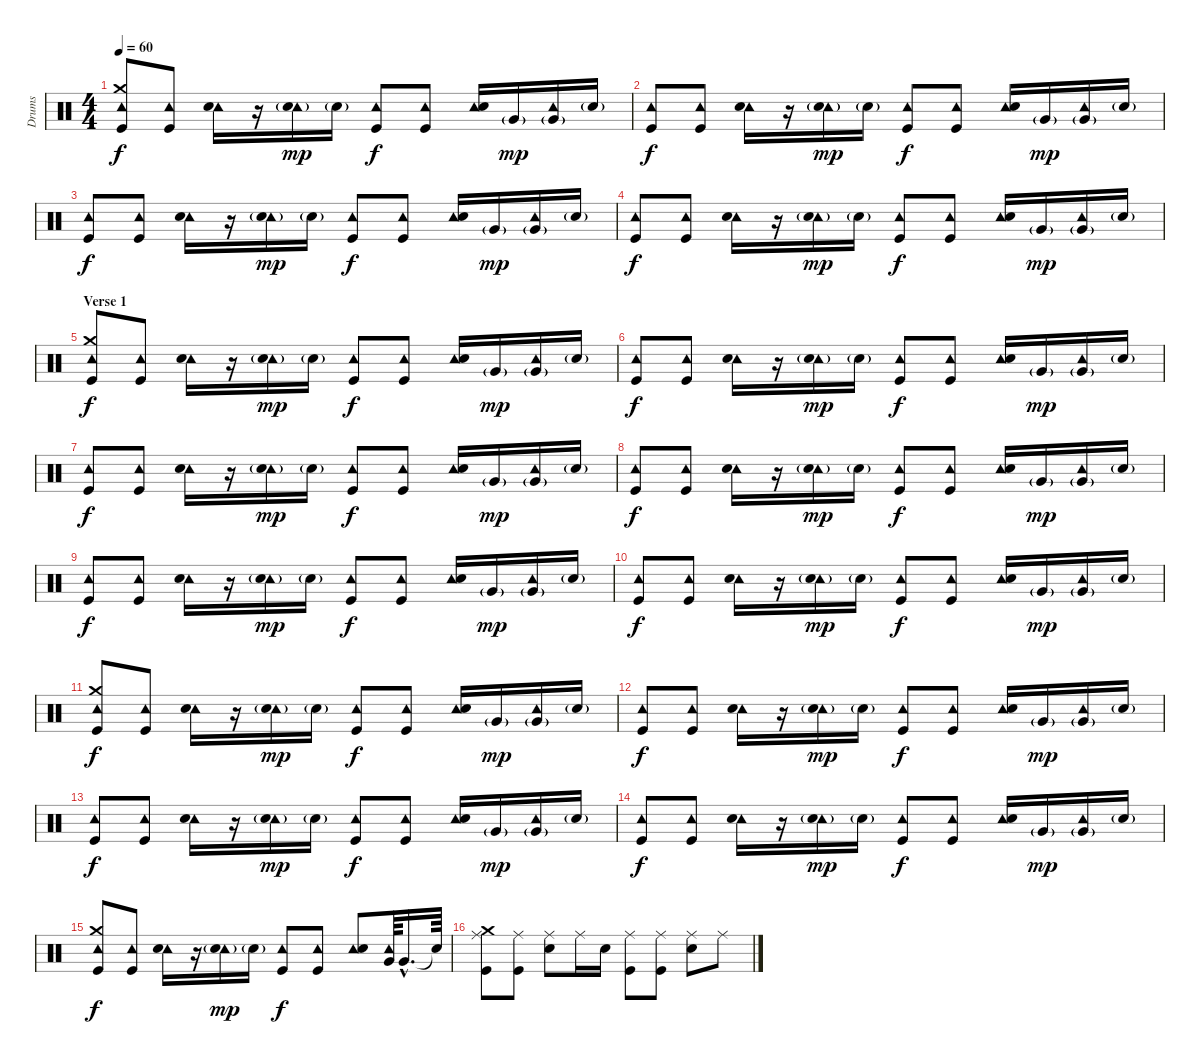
\track ("Drums" "Drums") {instrument percussion}
\staff {score}
\articulation defaults
\ts (4 4)
\tempo 60
\clef neutral
\ks c
("Tambourine (hit)" "Crash medium (hit)" "Kick (hit)").8{dy f} ("Tambourine (hit)" "Kick (hit)").8 ("Tambourine (hit)" "Snare (hit) 2").16 r.16 ("Tambourine (hit)" "Snare (hit) 2"{g}).16{dy mp} "Snare (hit) 2"{g}.16 ("Tambourine (hit)" "Kick (hit)").8{dy f} ("Tambourine (hit)" "Kick (hit)").8 ("Tambourine (hit)" "Snare (hit) 2").16 "Very Low Tom (hit)"{g}.16{dy mp} ("Tambourine (hit)" "Very Low Tom (hit)"{g}).16 "Snare (hit) 2"{g}.16 |
("Tambourine (hit)" "Kick (hit)").8{dy f} ("Tambourine (hit)" "Kick (hit)").8 ("Tambourine (hit)" "Snare (hit) 2").16 r.16 ("Tambourine (hit)" "Snare (hit) 2"{g}).16{dy mp} "Snare (hit) 2"{g}.16 ("Tambourine (hit)" "Kick (hit)").8{dy f} ("Tambourine (hit)" "Kick (hit)").8 ("Tambourine (hit)" "Snare (hit) 2").16 "Very Low Tom (hit)"{g}.16{dy mp} ("Tambourine (hit)" "Very Low Tom (hit)"{g}).16 "Snare (hit) 2"{g}.16 |
("Tambourine (hit)" "Kick (hit)").8{dy f} ("Tambourine (hit)" "Kick (hit)").8 ("Tambourine (hit)" "Snare (hit) 2").16 r.16 ("Tambourine (hit)" "Snare (hit) 2"{g}).16{dy mp} "Snare (hit) 2"{g}.16 ("Tambourine (hit)" "Kick (hit)").8{dy f} ("Tambourine (hit)" "Kick (hit)").8 ("Tambourine (hit)" "Snare (hit) 2").16 "Very Low Tom (hit)"{g}.16{dy mp} ("Tambourine (hit)" "Very Low Tom (hit)"{g}).16 "Snare (hit) 2"{g}.16 |
("Tambourine (hit)" "Kick (hit)").8{dy f} ("Tambourine (hit)" "Kick (hit)").8 ("Tambourine (hit)" "Snare (hit) 2").16 r.16 ("Tambourine (hit)" "Snare (hit) 2"{g}).16{dy mp} "Snare (hit) 2"{g}.16 ("Tambourine (hit)" "Kick (hit)").8{dy f} ("Tambourine (hit)" "Kick (hit)").8 ("Tambourine (hit)" "Snare (hit) 2").16 "Very Low Tom (hit)"{g}.16{dy mp} ("Tambourine (hit)" "Very Low Tom (hit)"{g}).16 "Snare (hit) 2"{g}.16 |
\section ("" "Verse 1")
("Tambourine (hit)" "Crash medium (hit)" "Kick (hit)").8{dy f} ("Tambourine (hit)" "Kick (hit)").8 ("Tambourine (hit)" "Snare (hit) 2").16 r.16 ("Tambourine (hit)" "Snare (hit) 2"{g}).16{dy mp} "Snare (hit) 2"{g}.16 ("Tambourine (hit)" "Kick (hit)").8{dy f} ("Tambourine (hit)" "Kick (hit)").8 ("Tambourine (hit)" "Snare (hit) 2").16 "Very Low Tom (hit)"{g}.16{dy mp} ("Tambourine (hit)" "Very Low Tom (hit)"{g}).16 "Snare (hit) 2"{g}.16 |
("Tambourine (hit)" "Kick (hit)").8{dy f} ("Tambourine (hit)" "Kick (hit)").8 ("Tambourine (hit)" "Snare (hit) 2").16 r.16 ("Tambourine (hit)" "Snare (hit) 2"{g}).16{dy mp} "Snare (hit) 2"{g}.16 ("Tambourine (hit)" "Kick (hit)").8{dy f} ("Tambourine (hit)" "Kick (hit)").8 ("Tambourine (hit)" "Snare (hit) 2").16 "Very Low Tom (hit)"{g}.16{dy mp} ("Tambourine (hit)" "Very Low Tom (hit)"{g}).16 "Snare (hit) 2"{g}.16 |
("Tambourine (hit)" "Kick (hit)").8{dy f} ("Tambourine (hit)" "Kick (hit)").8 ("Tambourine (hit)" "Snare (hit) 2").16 r.16 ("Tambourine (hit)" "Snare (hit) 2"{g}).16{dy mp} "Snare (hit) 2"{g}.16 ("Tambourine (hit)" "Kick (hit)").8{dy f} ("Tambourine (hit)" "Kick (hit)").8 ("Tambourine (hit)" "Snare (hit) 2").16 "Very Low Tom (hit)"{g}.16{dy mp} ("Tambourine (hit)" "Very Low Tom (hit)"{g}).16 "Snare (hit) 2"{g}.16 |
("Tambourine (hit)" "Kick (hit)").8{dy f} ("Tambourine (hit)" "Kick (hit)").8 ("Tambourine (hit)" "Snare (hit) 2").16 r.16 ("Tambourine (hit)" "Snare (hit) 2"{g}).16{dy mp} "Snare (hit) 2"{g}.16 ("Tambourine (hit)" "Kick (hit)").8{dy f} ("Tambourine (hit)" "Kick (hit)").8 ("Tambourine (hit)" "Snare (hit) 2").16 "Very Low Tom (hit)"{g}.16{dy mp} ("Tambourine (hit)" "Very Low Tom (hit)"{g}).16 "Snare (hit) 2"{g}.16 |
("Tambourine (hit)" "Kick (hit)").8{dy f} ("Tambourine (hit)" "Kick (hit)").8 ("Tambourine (hit)" "Snare (hit) 2").16 r.16 ("Tambourine (hit)" "Snare (hit) 2"{g}).16{dy mp} "Snare (hit) 2"{g}.16 ("Tambourine (hit)" "Kick (hit)").8{dy f} ("Tambourine (hit)" "Kick (hit)").8 ("Tambourine (hit)" "Snare (hit) 2").16 "Very Low Tom (hit)"{g}.16{dy mp} ("Tambourine (hit)" "Very Low Tom (hit)"{g}).16 "Snare (hit) 2"{g}.16 |
("Tambourine (hit)" "Kick (hit)").8{dy f} ("Tambourine (hit)" "Kick (hit)").8 ("Tambourine (hit)" "Snare (hit) 2").16 r.16 ("Tambourine (hit)" "Snare (hit) 2"{g}).16{dy mp} "Snare (hit) 2"{g}.16 ("Tambourine (hit)" "Kick (hit)").8{dy f} ("Tambourine (hit)" "Kick (hit)").8 ("Tambourine (hit)" "Snare (hit) 2").16 "Very Low Tom (hit)"{g}.16{dy mp} ("Tambourine (hit)" "Very Low Tom (hit)"{g}).16 "Snare (hit) 2"{g}.16 |
("Tambourine (hit)" "Crash medium (hit)" "Kick (hit)").8{dy f} ("Tambourine (hit)" "Kick (hit)").8 ("Tambourine (hit)" "Snare (hit) 2").16 r.16 ("Tambourine (hit)" "Snare (hit) 2"{g}).16{dy mp} "Snare (hit) 2"{g}.16 ("Tambourine (hit)" "Kick (hit)").8{dy f} ("Tambourine (hit)" "Kick (hit)").8 ("Tambourine (hit)" "Snare (hit) 2").16 "Very Low Tom (hit)"{g}.16{dy mp} ("Tambourine (hit)" "Very Low Tom (hit)"{g}).16 "Snare (hit) 2"{g}.16 |
("Tambourine (hit)" "Kick (hit)").8{dy f} ("Tambourine (hit)" "Kick (hit)").8 ("Tambourine (hit)" "Snare (hit) 2").16 r.16 ("Tambourine (hit)" "Snare (hit) 2"{g}).16{dy mp} "Snare (hit) 2"{g}.16 ("Tambourine (hit)" "Kick (hit)").8{dy f} ("Tambourine (hit)" "Kick (hit)").8 ("Tambourine (hit)" "Snare (hit) 2").16 "Very Low Tom (hit)"{g}.16{dy mp} ("Tambourine (hit)" "Very Low Tom (hit)"{g}).16 "Snare (hit) 2"{g}.16 |
("Tambourine (hit)" "Kick (hit)").8{dy f} ("Tambourine (hit)" "Kick (hit)").8 ("Tambourine (hit)" "Snare (hit) 2").16 r.16 ("Tambourine (hit)" "Snare (hit) 2"{g}).16{dy mp} "Snare (hit) 2"{g}.16 ("Tambourine (hit)" "Kick (hit)").8{dy f} ("Tambourine (hit)" "Kick (hit)").8 ("Tambourine (hit)" "Snare (hit) 2").16 "Very Low Tom (hit)"{g}.16{dy mp} ("Tambourine (hit)" "Very Low Tom (hit)"{g}).16 "Snare (hit) 2"{g}.16 |
("Tambourine (hit)" "Kick (hit)").8{dy f} ("Tambourine (hit)" "Kick (hit)").8 ("Tambourine (hit)" "Snare (hit) 2").16 r.16 ("Tambourine (hit)" "Snare (hit) 2"{g}).16{dy mp} "Snare (hit) 2"{g}.16 ("Tambourine (hit)" "Kick (hit)").8{dy f} ("Tambourine (hit)" "Kick (hit)").8 ("Tambourine (hit)" "Snare (hit) 2").16 "Very Low Tom (hit)"{g}.16{dy mp} ("Tambourine (hit)" "Very Low Tom (hit)"{g}).16 "Snare (hit) 2"{g}.16 |
("Tambourine (hit)" "Crash medium (hit)" "Kick (hit)").8{dy f} ("Tambourine (hit)" "Kick (hit)").8 ("Tambourine (hit)" "Snare (hit) 2").16 r.16 ("Tambourine (hit)" "Snare (hit) 2"{g}).16{dy mp} "Snare (hit) 2"{g}.16 ("Tambourine (hit)" "Kick (hit)").8{dy f} ("Tambourine (hit)" "Kick (hit)").8 ("Tambourine (hit)" "Snare (hit) 2").8 ("Tambourine (hit)" "Very Low Tom (hit)").64 "Very Low Tom (hit)"{hac}.16{d} "Snare (hit)"{t}.64 |
("Ride (middle)" "Crash medium (hit)" "Kick (hit)").8 ("Ride (middle)" "Kick (hit)").8 ("Ride (middle)" "Snare (hit) 2").8 "Ride (middle)".16 "Snare (hit) 2".16 ("Ride (middle)" "Kick (hit)").8 ("Ride (middle)" "Kick (hit)").8 ("Ride (middle)" "Snare (hit) 2").8 "Ride (middle)".8
